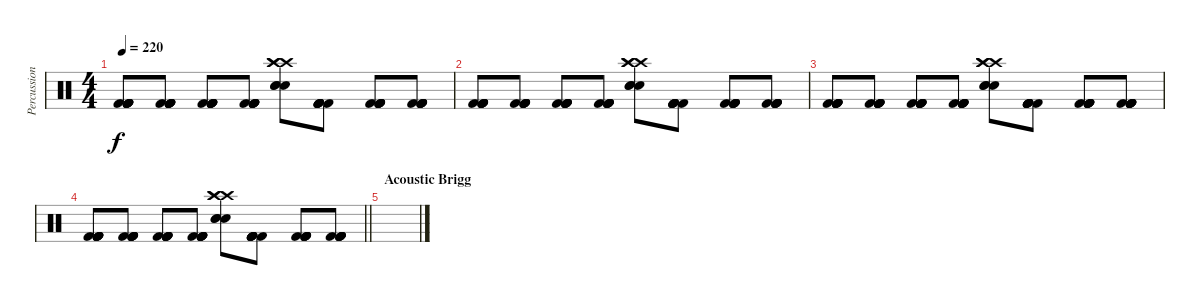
\track ("Percussion" "Percussion") {instrument percussion}
\staff {score}
\articulation defaults
\ts (4 4)
\tempo 220
\clef neutral
\ks c
("Kick (hit) 2" "Kick (hit) 2" "Kick (hit) 2" "Kick (hit) 2" "Kick (hit) 2" "Kick (hit) 2").8{dy f} ("Kick (hit) 2" "Kick (hit) 2" "Kick (hit) 2" "Kick (hit) 2" "Kick (hit) 2" "Kick (hit) 2").8 ("Kick (hit) 2" "Kick (hit) 2" "Kick (hit) 2" "Kick (hit) 2" "Kick (hit) 2" "Kick (hit) 2").8 ("Kick (hit) 2" "Kick (hit) 2" "Kick (hit) 2" "Kick (hit) 2" "Kick (hit) 2" "Kick (hit) 2").8 ("Crash high (hit)" "Crash high (hit)" "Crash high (hit)" "Snare (hit) 2" "Snare (hit) 2" "Snare (hit) 2").8 ("Kick (hit) 2" "Kick (hit) 2" "Kick (hit) 2" "Kick (hit) 2" "Kick (hit) 2" "Kick (hit) 2").8 ("Kick (hit) 2" "Kick (hit) 2" "Kick (hit) 2" "Kick (hit) 2" "Kick (hit) 2" "Kick (hit) 2").8 ("Kick (hit) 2" "Kick (hit) 2" "Kick (hit) 2" "Kick (hit) 2" "Kick (hit) 2" "Kick (hit) 2").8 |
("Kick (hit) 2" "Kick (hit) 2" "Kick (hit) 2" "Kick (hit) 2" "Kick (hit) 2" "Kick (hit) 2").8 ("Kick (hit) 2" "Kick (hit) 2" "Kick (hit) 2" "Kick (hit) 2" "Kick (hit) 2" "Kick (hit) 2").8 ("Kick (hit) 2" "Kick (hit) 2" "Kick (hit) 2" "Kick (hit) 2" "Kick (hit) 2" "Kick (hit) 2").8 ("Kick (hit) 2" "Kick (hit) 2" "Kick (hit) 2" "Kick (hit) 2" "Kick (hit) 2" "Kick (hit) 2").8 ("Crash high (hit)" "Crash high (hit)" "Crash high (hit)" "Snare (hit) 2" "Snare (hit) 2" "Snare (hit) 2").8 ("Kick (hit) 2" "Kick (hit) 2" "Kick (hit) 2" "Kick (hit) 2" "Kick (hit) 2" "Kick (hit) 2").8 ("Kick (hit) 2" "Kick (hit) 2" "Kick (hit) 2" "Kick (hit) 2" "Kick (hit) 2" "Kick (hit) 2").8 ("Kick (hit) 2" "Kick (hit) 2" "Kick (hit) 2" "Kick (hit) 2" "Kick (hit) 2" "Kick (hit) 2").8 |
("Kick (hit) 2" "Kick (hit) 2" "Kick (hit) 2" "Kick (hit) 2" "Kick (hit) 2" "Kick (hit) 2").8 ("Kick (hit) 2" "Kick (hit) 2" "Kick (hit) 2" "Kick (hit) 2" "Kick (hit) 2" "Kick (hit) 2").8 ("Kick (hit) 2" "Kick (hit) 2" "Kick (hit) 2" "Kick (hit) 2" "Kick (hit) 2" "Kick (hit) 2").8 ("Kick (hit) 2" "Kick (hit) 2" "Kick (hit) 2" "Kick (hit) 2" "Kick (hit) 2" "Kick (hit) 2").8 ("Crash high (hit)" "Crash high (hit)" "Crash high (hit)" "Snare (hit) 2" "Snare (hit) 2" "Snare (hit) 2").8 ("Kick (hit) 2" "Kick (hit) 2" "Kick (hit) 2" "Kick (hit) 2" "Kick (hit) 2" "Kick (hit) 2").8 ("Kick (hit) 2" "Kick (hit) 2" "Kick (hit) 2" "Kick (hit) 2" "Kick (hit) 2" "Kick (hit) 2").8 ("Kick (hit) 2" "Kick (hit) 2" "Kick (hit) 2" "Kick (hit) 2" "Kick (hit) 2" "Kick (hit) 2").8 |
\barLineRight lightlight
("Kick (hit) 2" "Kick (hit) 2" "Kick (hit) 2" "Kick (hit) 2" "Kick (hit) 2" "Kick (hit) 2").8 ("Kick (hit) 2" "Kick (hit) 2" "Kick (hit) 2" "Kick (hit) 2" "Kick (hit) 2" "Kick (hit) 2").8 ("Kick (hit) 2" "Kick (hit) 2" "Kick (hit) 2" "Kick (hit) 2" "Kick (hit) 2" "Kick (hit) 2").8 ("Kick (hit) 2" "Kick (hit) 2" "Kick (hit) 2" "Kick (hit) 2" "Kick (hit) 2" "Kick (hit) 2").8 ("Crash high (hit)" "Crash high (hit)" "Crash high (hit)" "Snare (hit) 2" "Snare (hit) 2" "Snare (hit) 2").8 ("Kick (hit) 2" "Kick (hit) 2" "Kick (hit) 2" "Kick (hit) 2" "Kick (hit) 2" "Kick (hit) 2").8 ("Kick (hit) 2" "Kick (hit) 2" "Kick (hit) 2" "Kick (hit) 2" "Kick (hit) 2" "Kick (hit) 2").8 ("Kick (hit) 2" "Kick (hit) 2" "Kick (hit) 2" "Kick (hit) 2" "Kick (hit) 2" "Kick (hit) 2").8 |
\section ("" "Acoustic Brigg")
